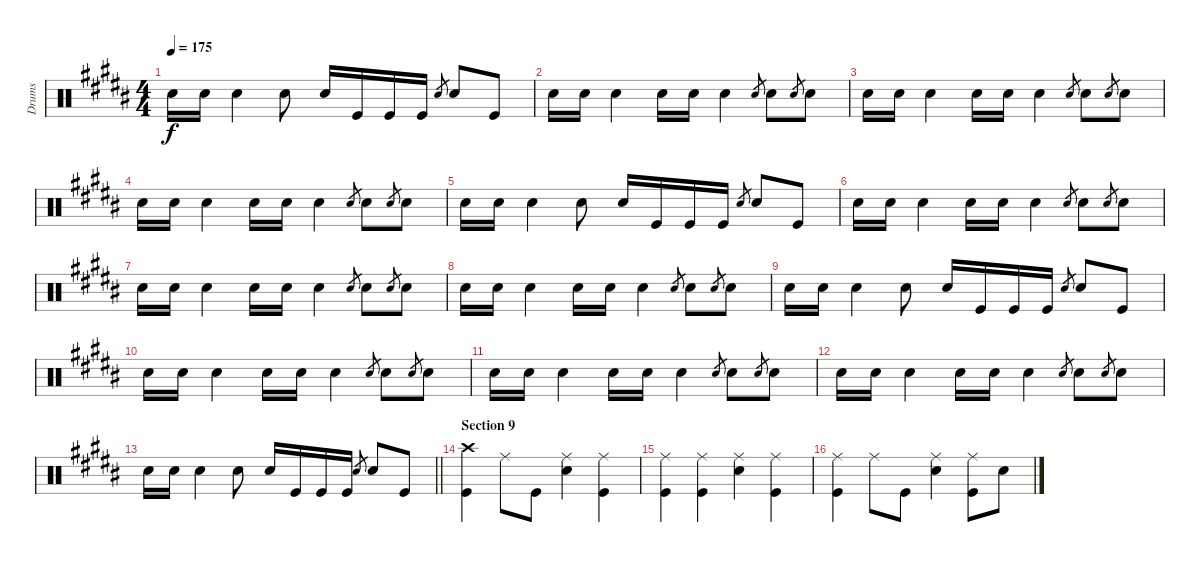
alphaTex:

\track ("Drums" "Drums") {instrument percussion}
\staff {score}
\articulation defaults
\ts (4 4)
\tempo 175
\clef neutral
\ks b "Snare (hit) 2".16{dy f} "Snare (hit) 2".16 "Snare (hit) 2".4 "Snare (hit) 2".8 "Snare (hit) 2".16 "Kick (hit)".16 "Kick (hit)".16 "Kick (hit)".16 "Snare (hit) 2".8{gr} "Snare (hit) 2".8 "Kick (hit)".8
|
"Snare (hit) 2".16 "Snare (hit) 2".16 "Snare (hit) 2".4 "Snare (hit) 2".16 "Snare (hit) 2".16 "Snare (hit) 2".4 "Snare (hit) 2".8{gr} "Snare (hit) 2".8 "Snare (hit) 2".8{gr} "Snare (hit) 2".8 |
"Snare (hit) 2".16 "Snare (hit) 2".16 "Snare (hit) 2".4 "Snare (hit) 2".16 "Snare (hit) 2".16 "Snare (hit) 2".4 "Snare (hit) 2".8{gr} "Snare (hit) 2".8 "Snare (hit) 2".8{gr} "Snare (hit) 2".8 |
"Snare (hit) 2".16 "Snare (hit) 2".16 "Snare (hit) 2".4 "Snare (hit) 2".16 "Snare (hit) 2".16 "Snare (hit) 2".4 "Snare (hit) 2".8{gr} "Snare (hit) 2".8 "Snare (hit) 2".8{gr} "Snare (hit) 2".8 |
"Snare (hit) 2".16 "Snare (hit) 2".16 "Snare (hit) 2".4 "Snare (hit) 2".8 "Snare (hit) 2".16 "Kick (hit)".16 "Kick (hit)".16 "Kick (hit)".16 "Snare (hit) 2".8{gr} "Snare (hit) 2".8 "Kick (hit)".8 |
"Snare (hit) 2".16 "Snare (hit) 2".16 "Snare (hit) 2".4 "Snare (hit) 2".16 "Snare (hit) 2".16 "Snare (hit) 2".4 "Snare (hit) 2".8{gr} "Snare (hit) 2".8 "Snare (hit) 2".8{gr} "Snare (hit) 2".8 |
"Snare (hit) 2".16 "Snare (hit) 2".16 "Snare (hit) 2".4 "Snare (hit) 2".16 "Snare (hit) 2".16 "Snare (hit) 2".4 "Snare (hit) 2".8{gr} "Snare (hit) 2".8 "Snare (hit) 2".8{gr} "Snare (hit) 2".8 |
"Snare (hit) 2".16 "Snare (hit) 2".16 "Snare (hit) 2".4 "Snare (hit) 2".16 "Snare (hit) 2".16 "Snare (hit) 2".4 "Snare (hit) 2".8{gr} "Snare (hit) 2".8 "Snare (hit) 2".8{gr} "Snare (hit) 2".8 |
"Snare (hit) 2".16 "Snare (hit) 2".16 "Snare (hit) 2".4 "Snare (hit) 2".8 "Snare (hit) 2".16 "Kick (hit)".16 "Kick (hit)".16 "Kick (hit)".16 "Snare (hit) 2".8{gr} "Snare (hit) 2".8 "Kick (hit)".8 |
"Snare (hit) 2".16 "Snare (hit) 2".16 "Snare (hit) 2".4 "Snare (hit) 2".16 "Snare (hit) 2".16 "Snare (hit) 2".4 "Snare (hit) 2".8{gr} "Snare (hit) 2".8 "Snare (hit) 2".8{gr} "Snare (hit) 2".8 |
"Snare (hit) 2".16 "Snare (hit) 2".16 "Snare (hit) 2".4 "Snare (hit) 2".16 "Snare (hit) 2".16 "Snare (hit) 2".4 "Snare (hit) 2".8{gr} "Snare (hit) 2".8 "Snare (hit) 2".8{gr} "Snare (hit) 2".8 |
"Snare (hit) 2".16 "Snare (hit) 2".16 "Snare (hit) 2".4 "Snare (hit) 2".16 "Snare (hit) 2".16 "Snare (hit) 2".4 "Snare (hit) 2".8{gr} "Snare (hit) 2".8 "Snare (hit) 2".8{gr} "Snare (hit) 2".8 |
\barLineRight lightlight "Snare (hit) 2".16 "Snare (hit) 2".16 "Snare (hit) 2".4 "Snare (hit) 2".8 "Snare (hit) 2".16 "Kick (hit)".16 "Kick (hit)".16 "Kick (hit)".16 "Snare (hit) 2".8{gr} "Snare (hit) 2".8 "Kick (hit)".8
|
\section ("" "Section 9")
("Crash high (hit)" "Kick (hit)").4 "Ride (middle)".8 "Kick (hit)".8 ("Ride (middle)" "Snare (hit) 2").4 ("Ride (middle)" "Kick (hit)").4 |
("Ride (middle)" "Kick (hit)").4 ("Ride (middle)" "Kick (hit)").4 ("Ride (middle)" "Snare (hit) 2").4 ("Ride (middle)" "Kick (hit)").4 |
("Ride (middle)" "Kick (hit)").4 "Ride (middle)".8 "Kick (hit)".8 ("Ride (middle)" "Snare (hit) 2").4 ("Ride (middle)" "Kick (hit)").8 "Snare (hit) 2".8
